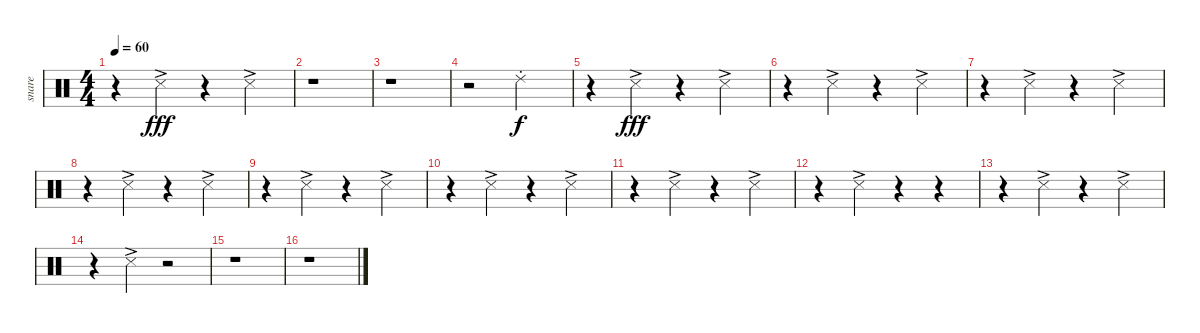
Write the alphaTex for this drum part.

\track ("snare" "snare") {instrument percussion}
\staff {score}
\articulation defaults
\ts (4 4)
\tempo 60
\clef neutral
\ks c
r.4{dy fff} "Snare (side stick) 3"{ac}.4 r.4 "Snare (side stick) 3"{ac}.4 |
r.1 |
r.1 |
r.2 "Ride (choke) 2".2{dy f} |
r.4 "Snare (side stick) 3"{ac}.4{dy fff} r.4 "Snare (side stick) 3"{ac}.4 |
r.4 "Snare (side stick) 3"{ac}.4 r.4 "Snare (side stick) 3"{ac}.4 |
r.4 "Snare (side stick) 3"{ac}.4 r.4 "Snare (side stick) 3"{ac}.4 |
r.4 "Snare (side stick) 3"{ac}.4 r.4 "Snare (side stick) 3"{ac}.4 |
r.4 "Snare (side stick) 3"{ac}.4 r.4 "Snare (side stick) 3"{ac}.4 |
r.4 "Snare (side stick) 3"{ac}.4 r.4 "Snare (side stick) 3"{ac}.4 |
r.4 "Snare (side stick) 3"{ac}.4 r.4 "Snare (side stick) 3"{ac}.4 |
r.4 "Snare (side stick) 3"{ac}.4 r.4 r.4 |
r.4 "Snare (side stick) 3"{ac}.4 r.4 "Snare (side stick) 3"{ac}.4 |
r.4 "Snare (side stick) 3"{ac}.4 r.2 |
r.1 |
r.1
